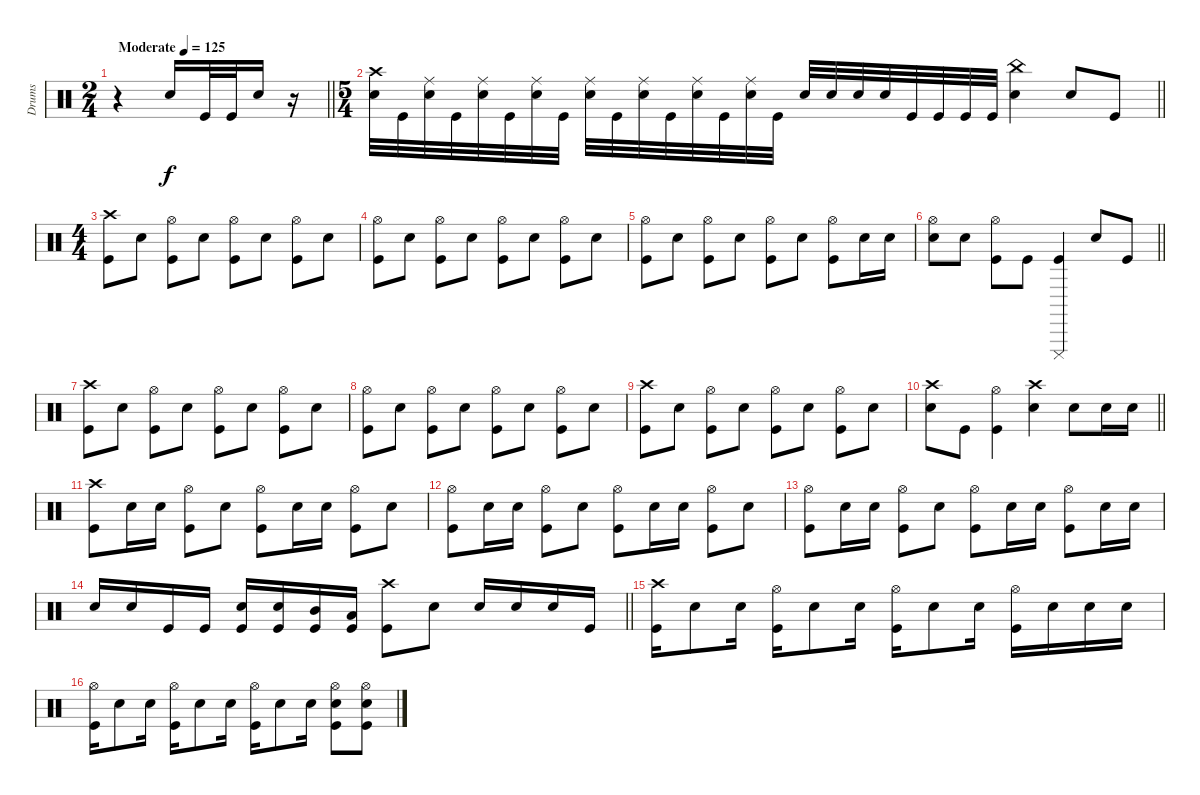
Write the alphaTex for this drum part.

\track ("Drums" "Drums") {instrument percussion}
\staff
\articulation defaults
\ts (2 4)
\tempo (125 "Moderate")
\clef neutral
\barLineRight lightlight
\ks c
r.4{dy f} "Electric Snare (hit)".16 "Kick (hit)".32 "Kick (hit)".32 "Electric Snare (hit)".16 r.16 |
\ts (5 4)
\barLineRight lightlight
("Crash high (hit)" "Electric Snare (hit)").32 "Kick (hit)".32 ("Ride (middle)" "Electric Snare (hit)").32 "Kick (hit)".32 ("Ride (middle)" "Electric Snare (hit)").32 "Kick (hit)".32 ("Ride (middle)" "Electric Snare (hit)").32 "Kick (hit)".32 ("Ride (middle)" "Electric Snare (hit)").32 "Kick (hit)".32 ("Ride (middle)" "Electric Snare (hit)").32 "Kick (hit)".32 ("Ride (middle)" "Electric Snare (hit)").32 "Kick (hit)".32 ("Ride (middle)" "Electric Snare (hit)").32 "Kick (hit)".32 "Electric Snare (hit)".32 "Electric Snare (hit)".32 "Electric Snare (hit)".32 "Electric Snare (hit)".32 "Kick (hit)".32 "Kick (hit)".32 "Kick (hit)".32 "Kick (hit)".32 ("China (hit)" "Electric Snare (hit)").4 "Electric Snare (hit)".8 "Kick (hit)".8 |
\ts (4 4)
("Crash high (hit)" "Kick (hit)").8 "Electric Snare (hit)".8 ("Hi-Hat (open)" "Kick (hit)").8 "Electric Snare (hit)".8 ("Hi-Hat (open)" "Kick (hit)").8 "Electric Snare (hit)".8 ("Hi-Hat (open)" "Kick (hit)").8 "Electric Snare (hit)".8 |
("Hi-Hat (open)" "Kick (hit)").8 "Electric Snare (hit)".8 ("Hi-Hat (open)" "Kick (hit)").8 "Electric Snare (hit)".8 ("Hi-Hat (open)" "Kick (hit)").8 "Electric Snare (hit)".8 ("Hi-Hat (open)" "Kick (hit)").8 "Electric Snare (hit)".8 |
("Hi-Hat (open)" "Kick (hit)").8 "Electric Snare (hit)".8 ("Hi-Hat (open)" "Kick (hit)").8 "Electric Snare (hit)".8 ("Hi-Hat (open)" "Kick (hit)").8 "Electric Snare (hit)".8 ("Hi-Hat (open)" "Kick (hit)").8 "Electric Snare (hit)".16 "Electric Snare (hit)".16 |
\barLineRight lightlight
("Hi-Hat (open)" "Electric Snare (hit)").8 "Electric Snare (hit)".8 ("Hi-Hat (open)" "Kick (hit)").8 "Kick (hit)".8 ("Cuica (mute)" "Kick (hit)").4 "Electric Snare (hit)".8 "Kick (hit)".8 |
("Crash high (hit)" "Kick (hit)").8 "Electric Snare (hit)".8 ("Hi-Hat (open)" "Kick (hit)").8 "Electric Snare (hit)".8 ("Hi-Hat (open)" "Kick (hit)").8 "Electric Snare (hit)".8 ("Hi-Hat (open)" "Kick (hit)").8 "Electric Snare (hit)".8 |
("Hi-Hat (open)" "Kick (hit)").8 "Electric Snare (hit)".8 ("Hi-Hat (open)" "Kick (hit)").8 "Electric Snare (hit)".8 ("Hi-Hat (open)" "Kick (hit)").8 "Electric Snare (hit)".8 ("Hi-Hat (open)" "Kick (hit)").8 "Electric Snare (hit)".8 |
("Crash high (hit)" "Kick (hit)").8 "Electric Snare (hit)".8 ("Hi-Hat (open)" "Kick (hit)").8 "Electric Snare (hit)".8 ("Hi-Hat (open)" "Kick (hit)").8 "Electric Snare (hit)".8 ("Hi-Hat (open)" "Kick (hit)").8 "Electric Snare (hit)".8 |
\barLineRight lightlight
("Crash high (hit)" "Electric Snare (hit)").8 "Kick (hit)".8 ("Hi-Hat (open)" "Kick (hit)").4 ("Crash high (hit)" "Electric Snare (hit)").4 "Electric Snare (hit)".8 "Electric Snare (hit)".16 "Electric Snare (hit)".16 |
("Crash high (hit)" "Kick (hit)").8 "Electric Snare (hit)".16 "Electric Snare (hit)".16 ("Hi-Hat (open)" "Kick (hit)").8 "Electric Snare (hit)".8 ("Hi-Hat (open)" "Kick (hit)").8 "Electric Snare (hit)".16 "Electric Snare (hit)".16 ("Hi-Hat (open)" "Kick (hit)").8 "Electric Snare (hit)".8 |
("Hi-Hat (open)" "Kick (hit)").8 "Electric Snare (hit)".16 "Electric Snare (hit)".16 ("Hi-Hat (open)" "Kick (hit)").8 "Electric Snare (hit)".8 ("Hi-Hat (open)" "Kick (hit)").8 "Electric Snare (hit)".16 "Electric Snare (hit)".16 ("Hi-Hat (open)" "Kick (hit)").8 "Electric Snare (hit)".8 |
("Hi-Hat (open)" "Kick (hit)").8 "Electric Snare (hit)".16 "Electric Snare (hit)".16 ("Hi-Hat (open)" "Kick (hit)").8 "Electric Snare (hit)".8 ("Hi-Hat (open)" "Kick (hit)").8 "Electric Snare (hit)".16 "Electric Snare (hit)".16 ("Hi-Hat (open)" "Kick (hit)").8 "Electric Snare (hit)".16 "Electric Snare (hit)".16 |
\barLineRight lightlight "Electric Snare (hit)".16 "Electric Snare (hit)".16 "Kick (hit)".16 "Kick (hit)".16
("Electric Snare (hit)" "Kick (hit)").16 ("Electric Snare (hit)" "Kick (hit)").16 ("Mid Tom (hit)" "Kick (hit)").16 ("Low Tom (hit)" "Kick (hit)").16 ("Crash high (hit)" "Kick (hit)").8 "Electric Snare (hit)".8 "Electric Snare (hit)".16 "Electric Snare (hit)".16 "Electric Snare (hit)".16 "Kick (hit)".16 |
("Crash high (hit)" "Kick (hit)").16 "Electric Snare (hit)".8 "Electric Snare (hit)".16 ("Hi-Hat (open)" "Kick (hit)").16 "Electric Snare (hit)".8 "Electric Snare (hit)".16 ("Hi-Hat (open)" "Kick (hit)").16 "Electric Snare (hit)".8 "Electric Snare (hit)".16 ("Hi-Hat (open)" "Kick (hit)").16 "Electric Snare (hit)".16 "Electric Snare (hit)".16 "Electric Snare (hit)".16 |
("Hi-Hat (open)" "Kick (hit)").16 "Electric Snare (hit)".8 "Electric Snare (hit)".16 ("Hi-Hat (open)" "Kick (hit)").16 "Electric Snare (hit)".8 "Electric Snare (hit)".16 ("Hi-Hat (open)" "Kick (hit)").16 "Electric Snare (hit)".8 "Electric Snare (hit)".16 ("Hi-Hat (open)" "Electric Snare (hit)" "Kick (hit)").8 ("Hi-Hat (open)" "Electric Snare (hit)" "Kick (hit)").8
